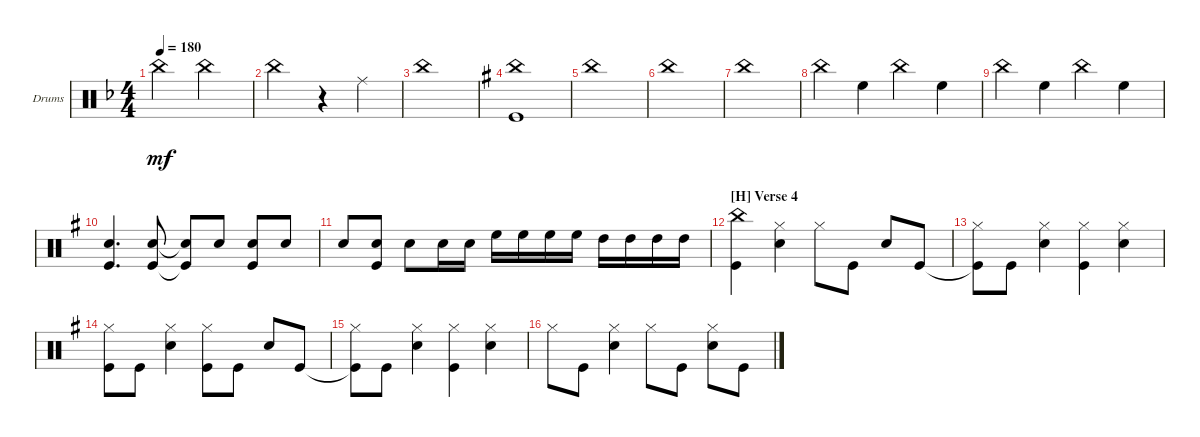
\defaultSystemsLayout 4
\bracketExtendMode groupsimilarinstruments
\firstSystemTrackNameOrientation horizontal
\otherSystemsTrackNameOrientation horizontal
\track ("Drumkit" "Drums") {instrument percussion}
\staff {score}
\articulation defaults
\ts (4 4)
\tempo 180
\clef neutral
\scale
0.333333
\ks f "China (hit)".2{dy mf} "China (hit)".2
|
\scale
0.333333 "China (hit)".2 r.4 "Ride (middle)".4 |
\scale
0.333333 "China (hit)".1 |
\scale
0.471698
\ks g
("Kick (hit)" "China (hit)").1 |
\scale
0.264151 "China (hit)".1 |
\scale
0.264151 "China (hit)".1 |
\scale
0.333333 "China (hit)".1 |
\scale
0.333333 "China (hit)".4 "High Floor Tom (hit)".4 "China (hit)".4 "High Floor Tom (hit)".4 |
\scale
0.333333 "China (hit)".4 "High Floor Tom (hit)".4 "China (hit)".4 "High Floor Tom (hit)".4 |
\scale
0.333333 ("Kick (hit)" "Snare (hit) 2").4{d} ("Kick (hit)" "Snare (hit) 2").8 ("Kick (hit)"{t} "Snare (hit) 2"{t}).8 "Snare (hit) 2".8 ("Snare (hit) 2" "Kick (hit)").8 "Snare (hit) 2".8 |
\scale
0.333333 "Snare (hit) 2".8 ("Snare (hit) 2" "Kick (hit)").8 "Snare (hit) 2".8 "Snare (hit) 2".16 "Snare (hit) 2".16 "High Floor Tom (hit)".16 "High Floor Tom (hit)".16 "High Floor Tom (hit)".16 "High Floor Tom (hit)".16 "High Tom (hit)".16 "High Tom (hit)".16 "High Tom (hit)".16 "High Tom (hit)".16 |
\section ("H" "Verse 4")
\scale
0.333333 ("Kick (hit)" "China (hit)").4 ("Snare (hit) 2" "Hi-Hat (closed)").4 "Hi-Hat (closed)".8 "Kick (hit)".8 "Snare (hit) 2".8 "Kick (hit)".8 |
\scale
0.333333 ("Kick (hit)"{t} "Hi-Hat (closed)").8 "Kick (hit)".8 ("Hi-Hat (closed)" "Snare (hit) 2").4 ("Kick (hit)" "Hi-Hat (closed)").4 ("Snare (hit) 2" "Hi-Hat (closed)").4 |
\scale
0.333333 ("Hi-Hat (closed)" "Kick (hit)").8 "Kick (hit)".8 ("Snare (hit) 2" "Hi-Hat (closed)").4 ("Kick (hit)" "Hi-Hat (closed)").8 "Kick (hit)".8 "Snare (hit) 2".8 "Kick (hit)".8 |
\scale
0.333333 ("Kick (hit)"{t} "Hi-Hat (closed)").8 "Kick (hit)".8 ("Snare (hit) 2" "Hi-Hat (closed)").4 ("Kick (hit)" "Hi-Hat (closed)").4 ("Snare (hit) 2" "Hi-Hat (closed)").4 |
\scale
0.333333 "Hi-Hat (closed)".8 "Kick (hit)".8 ("Snare (hit) 2" "Hi-Hat (closed)").4 "Hi-Hat (closed)".8 "Kick (hit)".8 ("Snare (hit) 2" "Hi-Hat (closed)").8 "Kick (hit)".8
